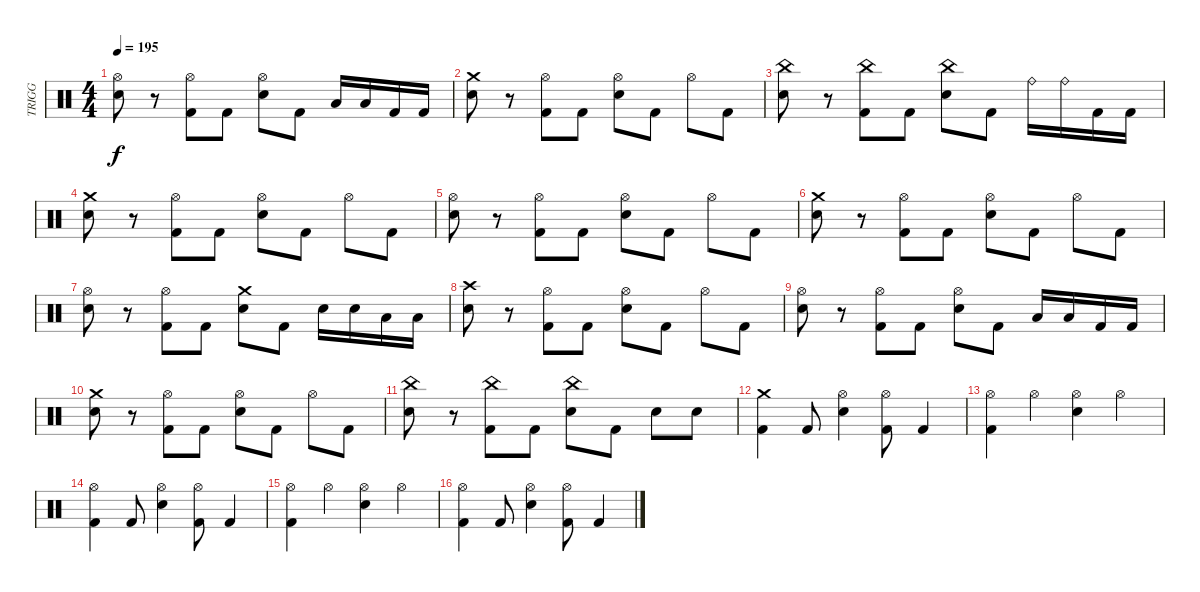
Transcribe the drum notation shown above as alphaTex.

\track ("TRIGG" "TRIGG") {instrument percussion}
\staff {score}
\articulation defaults
\ts (4 4)
\tempo 195
\clef neutral
\ks c
("Hi-Hat (open)" "Electric Snare (hit)").8{dy f} r.8 ("Hi-Hat (open)" "Kick (hit) 2").8 "Kick (hit) 2".8 ("Hi-Hat (open)" "Electric Snare (hit)").8 "Kick (hit) 2".8 "Low Tom (hit)".16 "Low Tom (hit)".16 "Kick (hit) 2".16 "Kick (hit) 2".16 |
("Crash medium (hit)" "Electric Snare (hit)").8 r.8 ("Hi-Hat (open)" "Kick (hit) 2").8 "Kick (hit) 2".8 ("Hi-Hat (open)" "Electric Snare (hit)").8 "Kick (hit) 2".8 "Hi-Hat (open)".8 "Kick (hit) 2".8 |
("China (hit)" "Electric Snare (hit)").8 r.8 ("China (hit)" "Kick (hit) 2").8 "Kick (hit) 2".8 ("China (hit)" "Electric Snare (hit)").8 "Kick (hit) 2".8 "Ride (bell)".16 "Ride (bell)".16 "Kick (hit) 2".16 "Kick (hit) 2".16 |
("Crash medium (hit)" "Electric Snare (hit)").8 r.8 ("Hi-Hat (open)" "Kick (hit) 2").8 "Kick (hit) 2".8 ("Hi-Hat (open)" "Electric Snare (hit)").8 "Kick (hit) 2".8 "Hi-Hat (open)".8 "Kick (hit) 2".8 |
("Hi-Hat (open)" "Electric Snare (hit)").8 r.8 ("Hi-Hat (open)" "Kick (hit) 2").8 "Kick (hit) 2".8 ("Hi-Hat (open)" "Electric Snare (hit)").8 "Kick (hit) 2".8 "Hi-Hat (open)".8 "Kick (hit) 2".8 |
("Crash medium (hit)" "Electric Snare (hit)").8 r.8 ("Hi-Hat (open)" "Kick (hit) 2").8 "Kick (hit) 2".8 ("Hi-Hat (open)" "Electric Snare (hit)").8 "Kick (hit) 2".8 "Hi-Hat (open)".8 "Kick (hit) 2".8 |
("Hi-Hat (open)" "Electric Snare (hit)").8 r.8 ("Hi-Hat (open)" "Kick (hit) 2").8 "Kick (hit) 2".8 ("Crash medium (hit)" "Electric Snare (hit)").8 "Kick (hit) 2".8 "Electric Snare (hit)".16 "Electric Snare (hit)".16 "Low Tom (hit)".16 "Low Tom (hit)".16 |
("Crash high (hit)" "Electric Snare (hit)").8 r.8 ("Hi-Hat (open)" "Kick (hit) 2").8 "Kick (hit) 2".8 ("Hi-Hat (open)" "Electric Snare (hit)").8 "Kick (hit) 2".8 "Hi-Hat (open)".8 "Kick (hit) 2".8 |
("Hi-Hat (open)" "Electric Snare (hit)").8 r.8 ("Hi-Hat (open)" "Kick (hit) 2").8 "Kick (hit) 2".8 ("Hi-Hat (open)" "Electric Snare (hit)").8 "Kick (hit) 2".8 "Low Tom (hit)".16 "Low Tom (hit)".16 "Kick (hit) 2".16 "Kick (hit) 2".16 |
("Crash medium (hit)" "Electric Snare (hit)").8 r.8 ("Hi-Hat (open)" "Kick (hit) 2").8 "Kick (hit) 2".8 ("Hi-Hat (open)" "Electric Snare (hit)").8 "Kick (hit) 2".8 "Hi-Hat (open)".8 "Kick (hit) 2".8 |
("China (hit)" "Electric Snare (hit)").8 r.8 ("China (hit)" "Kick (hit) 2").8 "Kick (hit) 2".8 ("China (hit)" "Electric Snare (hit)").8 "Kick (hit) 2".8 "Electric Snare (hit)".8 "Electric Snare (hit)".8 |
("Crash medium (hit)" "Kick (hit) 2").4 "Kick (hit) 2".8 ("Hi-Hat (open)" "Electric Snare (hit)").4 ("Hi-Hat (open)" "Kick (hit) 2").8 "Kick (hit) 2".4 |
("Hi-Hat (open)" "Kick (hit) 2").4 "Hi-Hat (open)".4 ("Hi-Hat (open)" "Electric Snare (hit)").4 "Hi-Hat (open)".4 |
("Hi-Hat (open)" "Kick (hit) 2").4 "Kick (hit) 2".8 ("Hi-Hat (open)" "Electric Snare (hit)").4 ("Hi-Hat (open)" "Kick (hit) 2").8 "Kick (hit) 2".4 |
("Hi-Hat (open)" "Kick (hit) 2").4 "Hi-Hat (open)".4 ("Hi-Hat (open)" "Electric Snare (hit)").4 "Hi-Hat (open)".4 |
("Hi-Hat (open)" "Kick (hit) 2").4 "Kick (hit) 2".8 ("Hi-Hat (open)" "Electric Snare (hit)").4 ("Hi-Hat (open)" "Kick (hit) 2").8 "Kick (hit) 2".4
